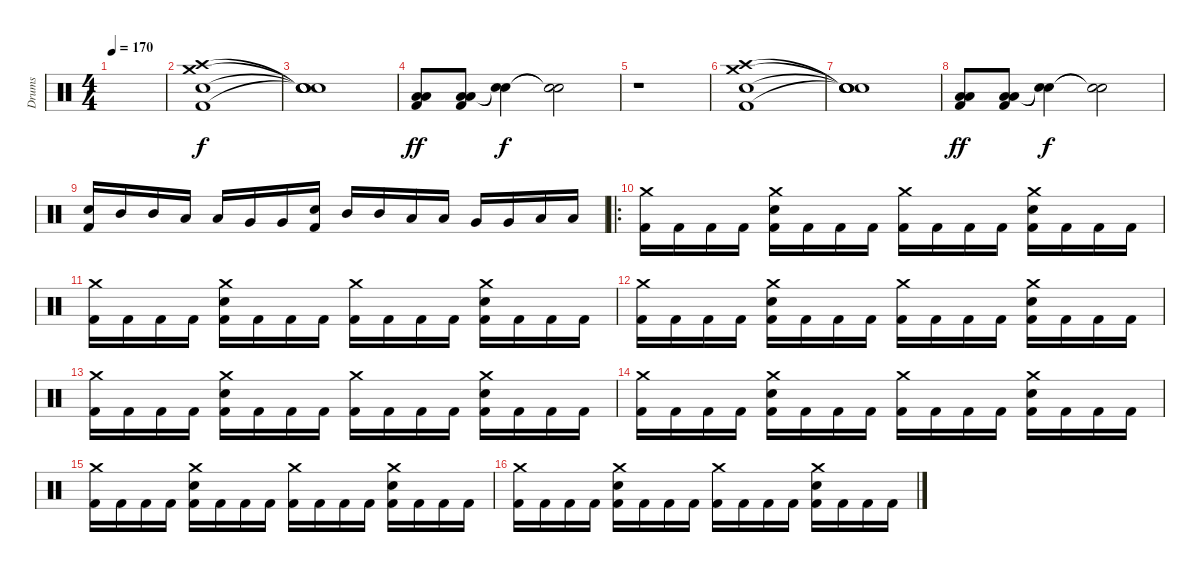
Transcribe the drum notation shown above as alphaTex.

\track ("Drums" "Drums") {instrument percussion}
\staff {score}
\articulation defaults
\ts (4 4)
\tempo 170
\clef neutral
\ks c
|
("Crash medium (hit)" "Crash high (hit)" "Snare (hit) 2" "Kick (hit) 2").1 |
("Snare (hit)"{t} "Snare (hit)"{t} "Snare (hit)"{t} "Snare (hit)"{t}).1 |
("Low Floor Tom (hit)" "Low Floor Tom (hit)" "Kick (hit) 2").8{dy ff} ("Low Floor Tom (hit)" "Low Floor Tom (hit)" "Kick (hit) 2").8 ("Snare (hit)"{t} "Snare (hit)"{t}).4{dy f} ("Snare (hit)"{t} "Snare (hit)"{t}).2 |
r.1 |
("Crash medium (hit)" "Crash high (hit)" "Snare (hit) 2" "Kick (hit) 2").1 |
("Snare (hit)"{t} "Snare (hit)"{t} "Snare (hit)"{t} "Snare (hit)"{t}).1 |
("Low Floor Tom (hit)" "Low Floor Tom (hit)" "Kick (hit) 2").8{dy ff} ("Low Floor Tom (hit)" "Low Floor Tom (hit)" "Kick (hit) 2").8 ("Snare (hit)"{t} "Snare (hit)"{t}).4{dy f} ("Snare (hit)"{t} "Snare (hit)"{t}).2 |
("Snare (hit) 2" "Kick (hit) 2").16 "Mid Tom (hit)".16 "Mid Tom (hit)".16 "Low Tom (hit)".16 "Low Tom (hit)".16 "Very Low Tom (hit)".16 "Very Low Tom (hit)".16 ("Snare (hit) 2" "Kick (hit) 2").16 "Mid Tom (hit)".16 "Mid Tom (hit)".16 "Low Tom (hit)".16 "Low Tom (hit)".16 "Very Low Tom (hit)".16 "Very Low Tom (hit)".16 "Low Floor Tom (hit)".16 "Low Floor Tom (hit)".16 |
\ro
("Crash medium (hit)" "Kick (hit) 2").16 "Kick (hit) 2".16 "Kick (hit) 2".16 "Kick (hit) 2".16 ("Crash medium (hit)" "Snare (hit) 2" "Kick (hit) 2").16 "Kick (hit) 2".16 "Kick (hit) 2".16 "Kick (hit) 2".16 ("Crash medium (hit)" "Kick (hit) 2").16 "Kick (hit) 2".16 "Kick (hit) 2".16 "Kick (hit) 2".16 ("Crash medium (hit)" "Snare (hit) 2" "Kick (hit) 2").16 "Kick (hit) 2".16 "Kick (hit) 2".16 "Kick (hit) 2".16 |
("Crash medium (hit)" "Kick (hit) 2").16 "Kick (hit) 2".16 "Kick (hit) 2".16 "Kick (hit) 2".16 ("Crash medium (hit)" "Snare (hit) 2" "Kick (hit) 2").16 "Kick (hit) 2".16 "Kick (hit) 2".16 "Kick (hit) 2".16 ("Crash medium (hit)" "Kick (hit) 2").16 "Kick (hit) 2".16 "Kick (hit) 2".16 "Kick (hit) 2".16 ("Crash medium (hit)" "Snare (hit) 2" "Kick (hit) 2").16 "Kick (hit) 2".16 "Kick (hit) 2".16 "Kick (hit) 2".16 |
("Crash medium (hit)" "Kick (hit) 2").16 "Kick (hit) 2".16 "Kick (hit) 2".16 "Kick (hit) 2".16 ("Crash medium (hit)" "Snare (hit) 2" "Kick (hit) 2").16 "Kick (hit) 2".16 "Kick (hit) 2".16 "Kick (hit) 2".16 ("Crash medium (hit)" "Kick (hit) 2").16 "Kick (hit) 2".16 "Kick (hit) 2".16 "Kick (hit) 2".16 ("Crash medium (hit)" "Snare (hit) 2" "Kick (hit) 2").16 "Kick (hit) 2".16 "Kick (hit) 2".16 "Kick (hit) 2".16 |
("Crash medium (hit)" "Kick (hit) 2").16 "Kick (hit) 2".16 "Kick (hit) 2".16 "Kick (hit) 2".16 ("Crash medium (hit)" "Snare (hit) 2" "Kick (hit) 2").16 "Kick (hit) 2".16 "Kick (hit) 2".16 "Kick (hit) 2".16 ("Crash medium (hit)" "Kick (hit) 2").16 "Kick (hit) 2".16 "Kick (hit) 2".16 "Kick (hit) 2".16 ("Crash medium (hit)" "Snare (hit) 2" "Kick (hit) 2").16 "Kick (hit) 2".16 "Kick (hit) 2".16 "Kick (hit) 2".16 |
("Crash medium (hit)" "Kick (hit) 2").16 "Kick (hit) 2".16 "Kick (hit) 2".16 "Kick (hit) 2".16 ("Crash medium (hit)" "Snare (hit) 2" "Kick (hit) 2").16 "Kick (hit) 2".16 "Kick (hit) 2".16 "Kick (hit) 2".16 ("Crash medium (hit)" "Kick (hit) 2").16 "Kick (hit) 2".16 "Kick (hit) 2".16 "Kick (hit) 2".16 ("Crash medium (hit)" "Snare (hit) 2" "Kick (hit) 2").16 "Kick (hit) 2".16 "Kick (hit) 2".16 "Kick (hit) 2".16 |
("Crash medium (hit)" "Kick (hit) 2").16 "Kick (hit) 2".16 "Kick (hit) 2".16 "Kick (hit) 2".16 ("Crash medium (hit)" "Snare (hit) 2" "Kick (hit) 2").16 "Kick (hit) 2".16 "Kick (hit) 2".16 "Kick (hit) 2".16 ("Crash medium (hit)" "Kick (hit) 2").16 "Kick (hit) 2".16 "Kick (hit) 2".16 "Kick (hit) 2".16 ("Crash medium (hit)" "Snare (hit) 2" "Kick (hit) 2").16 "Kick (hit) 2".16 "Kick (hit) 2".16 "Kick (hit) 2".16 |
("Crash medium (hit)" "Kick (hit) 2").16 "Kick (hit) 2".16 "Kick (hit) 2".16 "Kick (hit) 2".16 ("Crash medium (hit)" "Snare (hit) 2" "Kick (hit) 2").16 "Kick (hit) 2".16 "Kick (hit) 2".16 "Kick (hit) 2".16 ("Crash medium (hit)" "Kick (hit) 2").16 "Kick (hit) 2".16 "Kick (hit) 2".16 "Kick (hit) 2".16 ("Crash medium (hit)" "Snare (hit) 2" "Kick (hit) 2").16 "Kick (hit) 2".16 "Kick (hit) 2".16 "Kick (hit) 2".16
